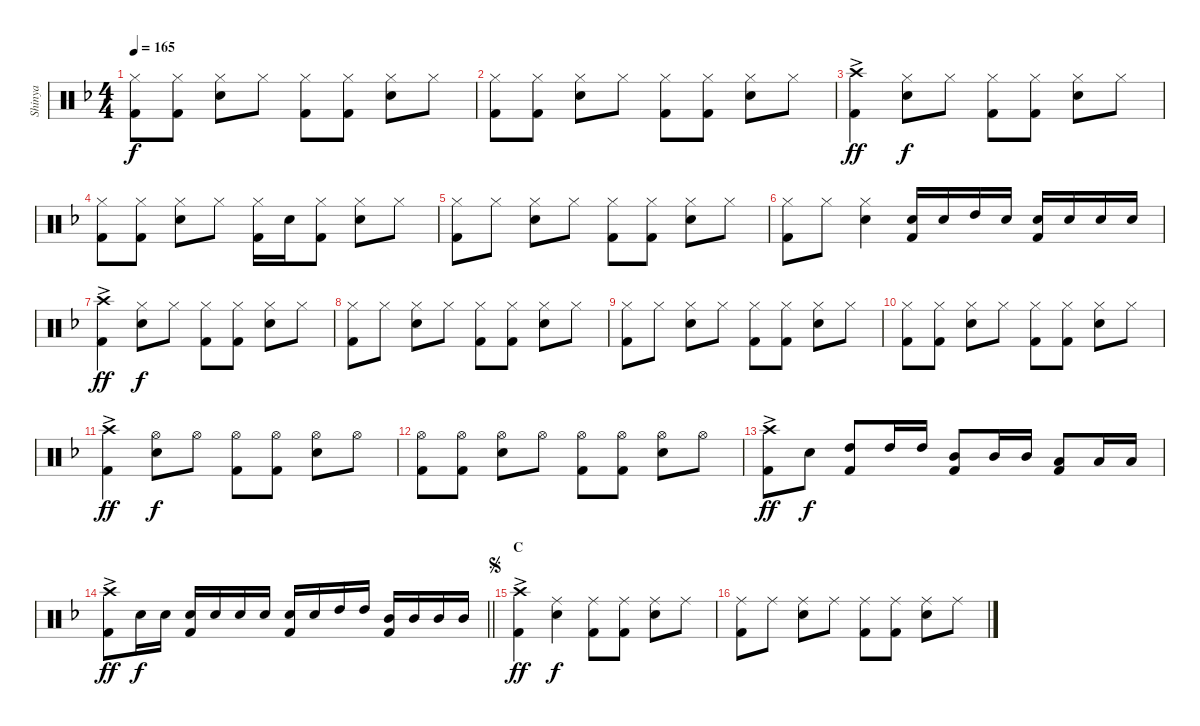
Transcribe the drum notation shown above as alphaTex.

\track ("Shinya" "Shinya") {instrument percussion}
\staff {score}
\articulation defaults
\ts (4 4)
\tempo 165
\clef neutral
\ks dminor
("Hi-Hat (closed)" "Kick (hit) 2").8{dy f} ("Hi-Hat (closed)" "Kick (hit) 2").8 ("Hi-Hat (closed)" "Snare (hit) 2").8 "Hi-Hat (closed)".8 ("Hi-Hat (closed)" "Kick (hit) 2").8 ("Hi-Hat (closed)" "Kick (hit) 2").8 ("Hi-Hat (closed)" "Snare (hit) 2").8 "Hi-Hat (closed)".8 |
("Hi-Hat (closed)" "Kick (hit) 2").8 ("Hi-Hat (closed)" "Kick (hit) 2").8 ("Hi-Hat (closed)" "Snare (hit) 2").8 "Hi-Hat (closed)".8 ("Hi-Hat (closed)" "Kick (hit) 2").8 ("Hi-Hat (closed)" "Kick (hit) 2").8 ("Hi-Hat (closed)" "Snare (hit) 2").8 "Hi-Hat (closed)".8 |
("Crash high (hit)"{ac} "Kick (hit) 2").4{dy ff} ("Hi-Hat (closed)" "Snare (hit) 2").8{dy f} "Hi-Hat (closed)".8 ("Hi-Hat (closed)" "Kick (hit) 2").8 ("Hi-Hat (closed)" "Kick (hit) 2").8 ("Hi-Hat (closed)" "Snare (hit) 2").8 "Hi-Hat (closed)".8 |
("Hi-Hat (closed)" "Kick (hit) 2").8 ("Hi-Hat (closed)" "Kick (hit) 2").8 ("Hi-Hat (closed)" "Snare (hit) 2").8 "Hi-Hat (closed)".8 ("Hi-Hat (closed)" "Kick (hit) 2").16 "Snare (hit) 2".16 ("Hi-Hat (closed)" "Kick (hit) 2").8 ("Hi-Hat (closed)" "Snare (hit) 2").8 "Hi-Hat (closed)".8 |
("Hi-Hat (closed)" "Kick (hit) 2").8 "Hi-Hat (closed)".8 ("Hi-Hat (closed)" "Snare (hit) 2").8 "Hi-Hat (closed)".8 ("Hi-Hat (closed)" "Kick (hit) 2").8 ("Hi-Hat (closed)" "Kick (hit) 2").8 ("Hi-Hat (closed)" "Snare (hit) 2").8 "Hi-Hat (closed)".8 |
("Hi-Hat (closed)" "Kick (hit) 2").8 "Hi-Hat (closed)".8 ("Hi-Hat (closed)" "Snare (hit) 2").4 ("Snare (hit) 2" "Kick (hit) 2").16 "Snare (hit) 2".16 "High Tom (hit)".16 "Snare (hit) 2".16 ("Snare (hit) 2" "Kick (hit) 2").16 "Snare (hit) 2".16 "Snare (hit) 2".16 "Snare (hit) 2".16 |
("Crash high (hit)"{ac} "Kick (hit) 2").4{dy ff} ("Hi-Hat (closed)" "Snare (hit) 2").8{dy f} "Hi-Hat (closed)".8 ("Hi-Hat (closed)" "Kick (hit) 2").8 ("Hi-Hat (closed)" "Kick (hit) 2").8 ("Hi-Hat (closed)" "Snare (hit) 2").8 "Hi-Hat (closed)".8 |
("Hi-Hat (closed)" "Kick (hit) 2").8 "Hi-Hat (closed)".8 ("Hi-Hat (closed)" "Snare (hit) 2").8 "Hi-Hat (closed)".8 ("Hi-Hat (closed)" "Kick (hit) 2").8 ("Hi-Hat (closed)" "Kick (hit) 2").8 ("Hi-Hat (closed)" "Snare (hit) 2").8 "Hi-Hat (closed)".8 |
("Hi-Hat (closed)" "Kick (hit) 2").8 "Hi-Hat (closed)".8 ("Hi-Hat (closed)" "Snare (hit) 2").8 "Hi-Hat (closed)".8 ("Hi-Hat (closed)" "Kick (hit) 2").8 ("Hi-Hat (closed)" "Kick (hit) 2").8 ("Hi-Hat (closed)" "Snare (hit) 2").8 "Hi-Hat (closed)".8 |
("Hi-Hat (closed)" "Kick (hit) 2").8 ("Hi-Hat (closed)" "Kick (hit) 2").8 ("Hi-Hat (closed)" "Snare (hit) 2").8 "Hi-Hat (closed)".8 ("Hi-Hat (closed)" "Kick (hit) 2").8 ("Hi-Hat (closed)" "Kick (hit) 2").8 ("Hi-Hat (closed)" "Snare (hit) 2").8 "Hi-Hat (closed)".8 |
("Crash high (hit)"{ac} "Kick (hit) 2").4{dy ff} ("Hi-Hat (open)" "Snare (hit) 2").8{dy f} "Hi-Hat (open)".8 ("Hi-Hat (open)" "Kick (hit) 2").8 ("Hi-Hat (open)" "Kick (hit) 2").8 ("Hi-Hat (open)" "Snare (hit) 2").8 "Hi-Hat (open)".8 |
("Hi-Hat (open)" "Kick (hit) 2").8 ("Hi-Hat (open)" "Kick (hit) 2").8 ("Hi-Hat (open)" "Snare (hit) 2").8 "Hi-Hat (open)".8 ("Hi-Hat (open)" "Kick (hit) 2").8 ("Hi-Hat (open)" "Kick (hit) 2").8 ("Hi-Hat (open)" "Snare (hit) 2").8 "Hi-Hat (open)".8 |
("Crash high (hit)"{ac} "Kick (hit) 2").8{dy ff} "Snare (hit) 2".8{dy f} ("High Tom (hit)" "Kick (hit) 2").8 "High Tom (hit)".16 "High Tom (hit)".16 ("Mid Tom (hit)" "Kick (hit) 2").8 "Mid Tom (hit)".16 "Mid Tom (hit)".16 ("Low Tom (hit)" "Kick (hit) 2").8 "Low Tom (hit)".16 "Low Tom (hit)".16 |
\barLineRight lightlight
("Crash high (hit)"{ac} "Kick (hit) 2").8{dy ff} "Snare (hit) 2".16{dy f} "Snare (hit) 2".16 ("Snare (hit) 2" "Kick (hit) 2").16 "Snare (hit) 2".16 "Snare (hit) 2".16 "Snare (hit) 2".16 ("Snare (hit) 2" "Kick (hit) 2").16 "Snare (hit) 2".16 "High Tom (hit)".16 "High Tom (hit)".16 ("Mid Tom (hit)" "Kick (hit) 2").16 "Mid Tom (hit)".16 "Mid Tom (hit)".16 "Mid Tom (hit)".16 |
\section ("" "C")
\jump segno
("Crash high (hit)"{ac} "Kick (hit) 2").4{dy ff} ("Ride (middle)" "Snare (hit) 2").4{dy f} ("Ride (middle)" "Kick (hit) 2").8 ("Ride (middle)" "Kick (hit) 2").8 ("Ride (middle)" "Snare (hit) 2").8 "Ride (middle)".8 |
("Ride (middle)" "Kick (hit) 2").8 "Ride (middle)".8 ("Ride (middle)" "Snare (hit) 2").8 "Ride (middle)".8 ("Ride (middle)" "Kick (hit) 2").8 ("Ride (middle)" "Kick (hit) 2").8 ("Ride (middle)" "Snare (hit) 2").8 "Ride (middle)".8
